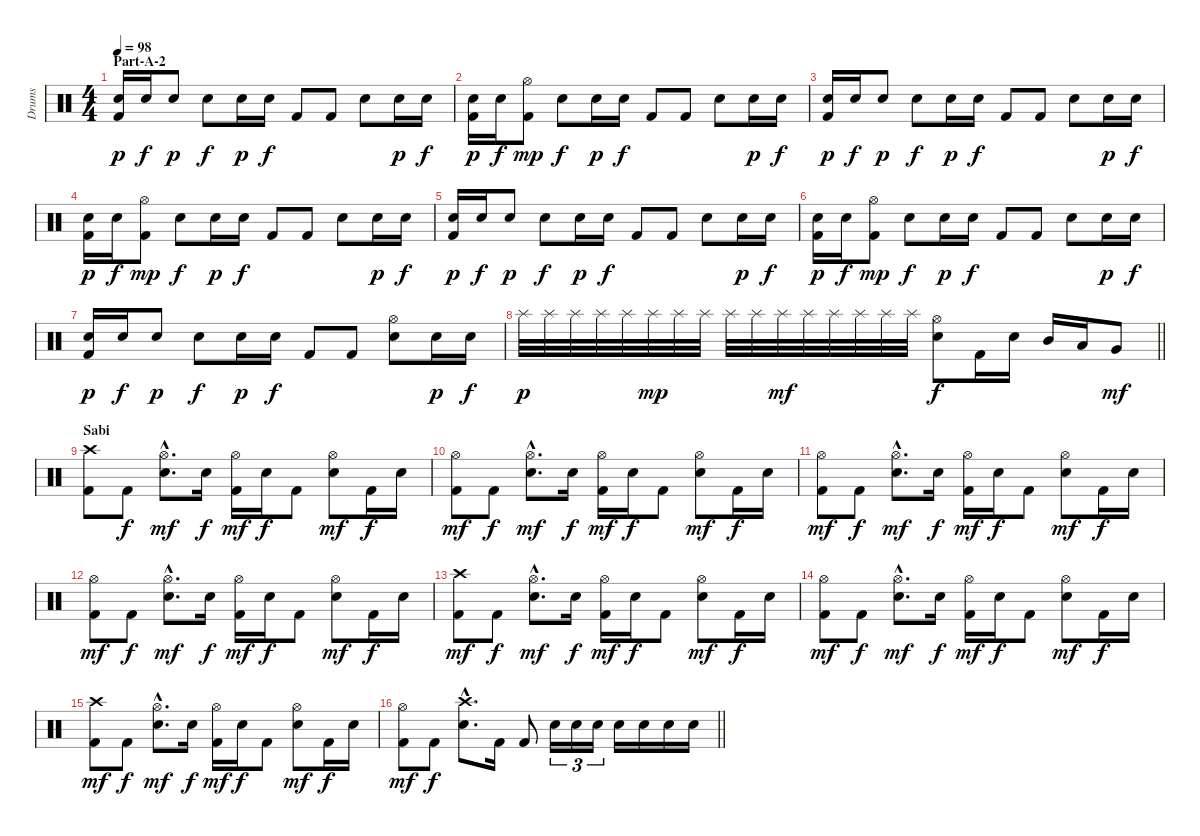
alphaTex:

\track ("Drums" "Drums") {instrument percussion}
\staff {score}
\articulation defaults
\ts (4 4)
\section ("" "Part-A-2")
\tempo 98
\clef neutral
\ks c
("Electric Snare (hit)" "Kick (hit) 2").16{dy p} "Snare (hit) 2".16{dy f} "Electric Snare (hit)".8{dy p} "Snare (hit) 2".8{dy f} "Electric Snare (hit)".16{dy p} "Snare (hit) 2".16{dy f} "Kick (hit) 2".8 "Kick (hit) 2".8 "Snare (hit) 2".8 "Electric Snare (hit)".16{dy p} "Snare (hit) 2".16{dy f} |
("Electric Snare (hit)" "Kick (hit) 2").16{dy p} "Snare (hit) 2".16{dy f} ("Hi-Hat (open)" "Kick (hit) 2").8{dy mp} "Snare (hit) 2".8{dy f} "Electric Snare (hit)".16{dy p} "Snare (hit) 2".16{dy f} "Kick (hit) 2".8 "Kick (hit) 2".8 "Snare (hit) 2".8 "Electric Snare (hit)".16{dy p} "Snare (hit) 2".16{dy f} |
("Electric Snare (hit)" "Kick (hit) 2").16{dy p} "Snare (hit) 2".16{dy f} "Electric Snare (hit)".8{dy p} "Snare (hit) 2".8{dy f} "Electric Snare (hit)".16{dy p} "Snare (hit) 2".16{dy f} "Kick (hit) 2".8 "Kick (hit) 2".8 "Snare (hit) 2".8 "Electric Snare (hit)".16{dy p} "Snare (hit) 2".16{dy f} |
("Electric Snare (hit)" "Kick (hit) 2").16{dy p} "Snare (hit) 2".16{dy f} ("Hi-Hat (open)" "Kick (hit) 2").8{dy mp} "Snare (hit) 2".8{dy f} "Electric Snare (hit)".16{dy p} "Snare (hit) 2".16{dy f} "Kick (hit) 2".8 "Kick (hit) 2".8 "Snare (hit) 2".8 "Electric Snare (hit)".16{dy p} "Snare (hit) 2".16{dy f} |
("Electric Snare (hit)" "Kick (hit) 2").16{dy p} "Snare (hit) 2".16{dy f} "Electric Snare (hit)".8{dy p} "Snare (hit) 2".8{dy f} "Electric Snare (hit)".16{dy p} "Snare (hit) 2".16{dy f} "Kick (hit) 2".8 "Kick (hit) 2".8 "Snare (hit) 2".8 "Electric Snare (hit)".16{dy p} "Snare (hit) 2".16{dy f} |
("Electric Snare (hit)" "Kick (hit) 2").16{dy p} "Snare (hit) 2".16{dy f} ("Hi-Hat (open)" "Kick (hit) 2").8{dy mp} "Snare (hit) 2".8{dy f} "Electric Snare (hit)".16{dy p} "Snare (hit) 2".16{dy f} "Kick (hit) 2".8 "Kick (hit) 2".8 "Snare (hit) 2".8 "Electric Snare (hit)".16{dy p} "Snare (hit) 2".16{dy f} |
("Electric Snare (hit)" "Kick (hit) 2").16{dy p} "Snare (hit) 2".16{dy f} "Electric Snare (hit)".8{dy p} "Snare (hit) 2".8{dy f} "Electric Snare (hit)".16{dy p} "Snare (hit) 2".16{dy f} "Kick (hit) 2".8 "Kick (hit) 2".8 ("Hi-Hat (open)" "Snare (hit) 2").8 "Electric Snare (hit)".16{dy p} "Snare (hit) 2".16{dy f} |
\barLineRight lightlight "Splash (hit)".32{dy p} "Splash (hit)".32 "Splash (hit)".32 "Splash (hit)".32 "Splash (hit)".32 "Splash (hit)".32{dy mp} "Splash (hit)".32 "Splash (hit)".32 "Splash (hit)".32 "Splash (hit)".32 "Splash (hit)".32{dy mf} "Splash (hit)".32 "Splash (hit)".32 "Splash (hit)".32 "Splash (hit)".32 "Splash (hit)".32
("Hi-Hat (open)" "Snare (hit) 2").8{dy f} "Kick (hit) 2".16 "Snare (hit) 2".16 "Mid Tom (hit)".16 "Low Tom (hit)".16 "Very Low Tom (hit)".8{dy mf} |
\section ("" "Sabi")
("Crash high (hit)" "Kick (hit) 2").8 "Kick (hit) 2".8{dy f} ("Hi-Hat (open)"{hac} "Snare (hit) 2"{hac}).8{d dy mf} "Snare (hit) 2".16{dy f} ("Hi-Hat (open)" "Kick (hit) 2").16{dy mf} "Snare (hit) 2".16{dy f} "Kick (hit) 2".8 ("Hi-Hat (open)" "Snare (hit) 2").8{dy mf} "Kick (hit) 2".16{dy f} "Snare (hit) 2".16 |
("Hi-Hat (open)" "Kick (hit) 2").8{dy mf} "Kick (hit) 2".8{dy f} ("Hi-Hat (open)"{hac} "Snare (hit) 2"{hac}).8{d dy mf} "Snare (hit) 2".16{dy f} ("Hi-Hat (open)" "Kick (hit) 2").16{dy mf} "Snare (hit) 2".16{dy f} "Kick (hit) 2".8 ("Hi-Hat (open)" "Snare (hit) 2").8{dy mf} "Kick (hit) 2".16{dy f} "Snare (hit) 2".16 |
("Hi-Hat (open)" "Kick (hit) 2").8{dy mf} "Kick (hit) 2".8{dy f} ("Hi-Hat (open)"{hac} "Snare (hit) 2"{hac}).8{d dy mf} "Snare (hit) 2".16{dy f} ("Hi-Hat (open)" "Kick (hit) 2").16{dy mf} "Snare (hit) 2".16{dy f} "Kick (hit) 2".8 ("Hi-Hat (open)" "Snare (hit) 2").8{dy mf} "Kick (hit) 2".16{dy f} "Snare (hit) 2".16 |
("Hi-Hat (open)" "Kick (hit) 2").8{dy mf} "Kick (hit) 2".8{dy f} ("Hi-Hat (open)"{hac} "Snare (hit) 2"{hac}).8{d dy mf} "Snare (hit) 2".16{dy f} ("Hi-Hat (open)" "Kick (hit) 2").16{dy mf} "Snare (hit) 2".16{dy f} "Kick (hit) 2".8 ("Hi-Hat (open)" "Snare (hit) 2").8{dy mf} "Kick (hit) 2".16{dy f} "Snare (hit) 2".16 |
("Crash high (hit)" "Kick (hit) 2").8{dy mf} "Kick (hit) 2".8{dy f} ("Hi-Hat (open)"{hac} "Snare (hit) 2"{hac}).8{d dy mf} "Snare (hit) 2".16{dy f} ("Hi-Hat (open)" "Kick (hit) 2").16{dy mf} "Snare (hit) 2".16{dy f} "Kick (hit) 2".8 ("Hi-Hat (open)" "Snare (hit) 2").8{dy mf} "Kick (hit) 2".16{dy f} "Snare (hit) 2".16 |
("Hi-Hat (open)" "Kick (hit) 2").8{dy mf} "Kick (hit) 2".8{dy f} ("Hi-Hat (open)"{hac} "Snare (hit) 2"{hac}).8{d dy mf} "Snare (hit) 2".16{dy f} ("Hi-Hat (open)" "Kick (hit) 2").16{dy mf} "Snare (hit) 2".16{dy f} "Kick (hit) 2".8 ("Hi-Hat (open)" "Snare (hit) 2").8{dy mf} "Kick (hit) 2".16{dy f} "Snare (hit) 2".16 |
("Crash high (hit)" "Kick (hit) 2").8{dy mf} "Kick (hit) 2".8{dy f} ("Hi-Hat (open)"{hac} "Snare (hit) 2"{hac}).8{d dy mf} "Snare (hit) 2".16{dy f} ("Hi-Hat (open)" "Kick (hit) 2").16{dy mf} "Snare (hit) 2".16{dy f} "Kick (hit) 2".8 ("Hi-Hat (open)" "Snare (hit) 2").8{dy mf} "Kick (hit) 2".16{dy f} "Snare (hit) 2".16 |
\barLineRight lightlight
("Hi-Hat (open)" "Kick (hit) 2").8{dy mf} "Kick (hit) 2".8{dy f} ("Crash high (hit)"{hac} "Snare (hit) 2"{hac}).8{d} "Kick (hit) 2".16 "Kick (hit) 2".8 "Snare (hit) 2".16{tu (3 2)} "Snare (hit) 2".16{tu (3 2)} "Snare (hit) 2".16{tu (3 2)} "Snare (hit) 2".16 "Snare (hit) 2".16 "Snare (hit) 2".16 "Snare (hit) 2".16
